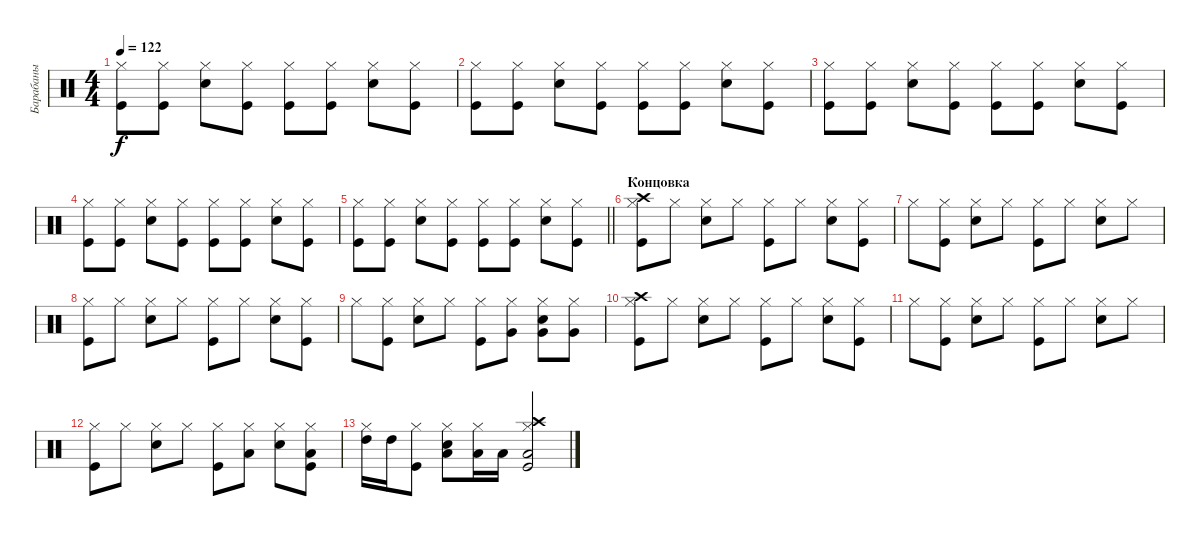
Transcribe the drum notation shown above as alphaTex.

\track ("Барабаны" "Барабаны") {instrument percussion}
\staff {score}
\articulation defaults
\ts (4 4)
\tempo 122
\clef neutral
\ks c
("Kick (hit)" "Hi-Hat (closed)").8{dy f} ("Kick (hit)" "Hi-Hat (closed)").8 ("Snare (hit) 2" "Hi-Hat (closed)").8 ("Kick (hit)" "Hi-Hat (closed)").8 ("Kick (hit)" "Hi-Hat (closed)").8 ("Kick (hit)" "Hi-Hat (closed)").8 ("Snare (hit) 2" "Hi-Hat (closed)").8 ("Kick (hit)" "Hi-Hat (closed)").8 |
("Kick (hit)" "Hi-Hat (closed)").8 ("Kick (hit)" "Hi-Hat (closed)").8 ("Snare (hit) 2" "Hi-Hat (closed)").8 ("Kick (hit)" "Hi-Hat (closed)").8 ("Kick (hit)" "Hi-Hat (closed)").8 ("Kick (hit)" "Hi-Hat (closed)").8 ("Snare (hit) 2" "Hi-Hat (closed)").8 ("Kick (hit)" "Hi-Hat (closed)").8 |
("Kick (hit)" "Hi-Hat (closed)").8 ("Kick (hit)" "Hi-Hat (closed)").8 ("Snare (hit) 2" "Hi-Hat (closed)").8 ("Kick (hit)" "Hi-Hat (closed)").8 ("Kick (hit)" "Hi-Hat (closed)").8 ("Kick (hit)" "Hi-Hat (closed)").8 ("Snare (hit) 2" "Hi-Hat (closed)").8 ("Kick (hit)" "Hi-Hat (closed)").8 |
("Kick (hit)" "Hi-Hat (closed)").8 ("Kick (hit)" "Hi-Hat (closed)").8 ("Snare (hit) 2" "Hi-Hat (closed)").8 ("Kick (hit)" "Hi-Hat (closed)").8 ("Kick (hit)" "Hi-Hat (closed)").8 ("Kick (hit)" "Hi-Hat (closed)").8 ("Snare (hit) 2" "Hi-Hat (closed)").8 ("Kick (hit)" "Hi-Hat (closed)").8 |
\barLineRight lightlight
("Kick (hit)" "Hi-Hat (closed)").8 ("Kick (hit)" "Hi-Hat (closed)").8 ("Snare (hit) 2" "Hi-Hat (closed)").8 ("Kick (hit)" "Hi-Hat (closed)").8 ("Kick (hit)" "Hi-Hat (closed)").8 ("Kick (hit)" "Hi-Hat (closed)").8 ("Snare (hit) 2" "Hi-Hat (closed)").8 ("Kick (hit)" "Hi-Hat (closed)").8 |
\section ("" "Концовка")
("Kick (hit)" "Hi-Hat (closed)" "Crash high (hit)").8 "Hi-Hat (closed)".8 ("Snare (hit) 2" "Hi-Hat (closed)").8 "Hi-Hat (closed)".8 ("Kick (hit)" "Hi-Hat (closed)").8 "Hi-Hat (closed)".8 ("Snare (hit) 2" "Hi-Hat (closed)").8 ("Kick (hit)" "Hi-Hat (closed)").8 |
"Hi-Hat (closed)".8 ("Kick (hit)" "Hi-Hat (closed)").8 ("Snare (hit) 2" "Hi-Hat (closed)").8 "Hi-Hat (closed)".8 ("Kick (hit)" "Hi-Hat (closed)").8 "Hi-Hat (closed)".8 ("Snare (hit) 2" "Hi-Hat (closed)").8 "Hi-Hat (closed)".8 |
("Kick (hit)" "Hi-Hat (closed)").8 "Hi-Hat (closed)".8 ("Snare (hit) 2" "Hi-Hat (closed)").8 "Hi-Hat (closed)".8 ("Kick (hit)" "Hi-Hat (closed)").8 "Hi-Hat (closed)".8 ("Snare (hit) 2" "Hi-Hat (closed)").8 ("Kick (hit)" "Hi-Hat (closed)").8 |
"Hi-Hat (closed)".8 ("Kick (hit)" "Hi-Hat (closed)").8 ("Snare (hit) 2" "Hi-Hat (closed)").8 "Hi-Hat (closed)".8 ("Kick (hit)" "Hi-Hat (closed)").8 ("Hi-Hat (closed)" "Very Low Tom (hit)").8 ("Snare (hit) 2" "Hi-Hat (closed)" "Very Low Tom (hit)").8 ("Hi-Hat (closed)" "Very Low Tom (hit)").8 |
("Kick (hit)" "Hi-Hat (closed)" "Crash high (hit)").8 "Hi-Hat (closed)".8 ("Snare (hit) 2" "Hi-Hat (closed)").8 "Hi-Hat (closed)".8 ("Kick (hit)" "Hi-Hat (closed)").8 "Hi-Hat (closed)".8 ("Snare (hit) 2" "Hi-Hat (closed)").8 ("Kick (hit)" "Hi-Hat (closed)").8 |
"Hi-Hat (closed)".8 ("Kick (hit)" "Hi-Hat (closed)").8 ("Snare (hit) 2" "Hi-Hat (closed)").8 "Hi-Hat (closed)".8 ("Kick (hit)" "Hi-Hat (closed)").8 "Hi-Hat (closed)".8 ("Snare (hit) 2" "Hi-Hat (closed)").8 "Hi-Hat (closed)".8 |
("Kick (hit)" "Hi-Hat (closed)").8 "Hi-Hat (closed)".8 ("Snare (hit) 2" "Hi-Hat (closed)").8 "Hi-Hat (closed)".8 ("Kick (hit)" "Hi-Hat (closed)").8 ("Hi-Hat (closed)" "Low Tom (hit)").8 ("Snare (hit) 2" "Hi-Hat (closed)").8 ("Kick (hit)" "Hi-Hat (closed)" "Low Tom (hit)").8 |
("Hi-Hat (closed)" "High Tom (hit)").16 "High Tom (hit)".16 ("Kick (hit)" "Hi-Hat (closed)").8 ("Snare (hit) 2" "Hi-Hat (closed)" "Low Floor Tom (hit)").8 ("Hi-Hat (closed)" "Low Floor Tom (hit)").16 "Low Floor Tom (hit)".16 ("Kick (hit)" "Hi-Hat (closed)" "Crash high (hit)" "Low Floor Tom (hit)").2
